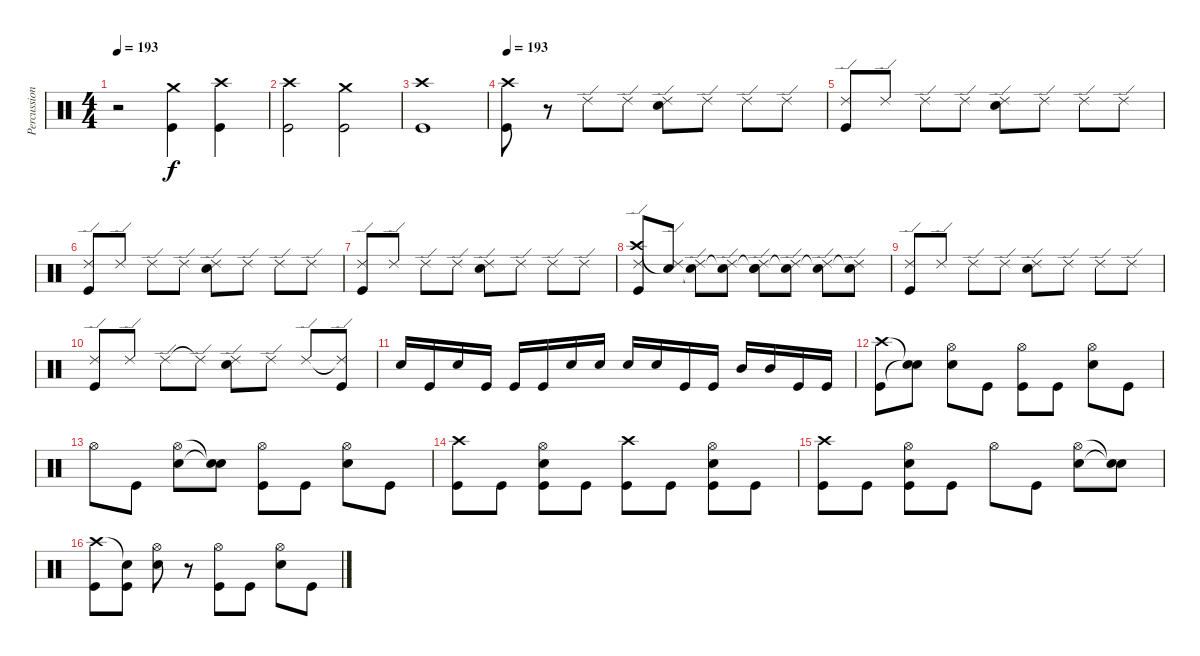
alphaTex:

\track ("Percussion" "Percussion") {instrument percussion}
\staff {score}
\articulation defaults
\ts (4 4)
\tempo 193
\clef neutral
\ks c
r.2{dy f} ("Crash medium (hit)" "Kick (hit)").4 ("Crash high (hit)" "Kick (hit)").4 |
("Crash high (hit)" "Kick (hit)").2 ("Crash medium (hit)" "Kick (hit)").2 |
("Crash high (hit)" "Kick (hit)").1 |
\tempo 193
("Crash high (hit)" "Kick (hit)").8 r.8 "Ride (edge) 2".8 "Ride (edge) 2".8 ("Ride (edge) 2" "Snare (hit) 2").8 "Ride (edge) 2".8 "Ride (edge) 2".8 "Ride (edge) 2".8 |
("Ride (edge) 2" "Kick (hit)").8 "Ride (edge) 2".8 "Ride (edge) 2".8 "Ride (edge) 2".8 ("Ride (edge) 2" "Snare (hit) 2").8 "Ride (edge) 2".8 "Ride (edge) 2".8 "Ride (edge) 2".8 |
("Ride (edge) 2" "Kick (hit)").8 "Ride (edge) 2".8 "Ride (edge) 2".8 "Ride (edge) 2".8 ("Ride (edge) 2" "Snare (hit) 2").8 "Ride (edge) 2".8 "Ride (edge) 2".8 "Ride (edge) 2".8 |
("Ride (edge) 2" "Kick (hit)").8 "Ride (edge) 2".8 "Ride (edge) 2".8 "Ride (edge) 2".8 ("Ride (edge) 2" "Snare (hit) 2").8 "Ride (edge) 2".8 "Ride (edge) 2".8 "Ride (edge) 2".8 |
("Crash high (hit)" "Ride (edge) 2" "Kick (hit)").8 ("Snare (hit)"{t} "Ride (edge) 2").8 ("Snare (hit)"{t} "Ride (edge) 2").8 ("Snare (hit)"{t} "Ride (edge) 2").8 ("Snare (hit)"{t} "Ride (edge) 2" "Snare (hit) 2").8 ("Snare (hit)"{t} "Ride (edge) 2").8 ("Snare (hit)"{t} "Ride (edge) 2").8 ("Snare (hit)"{t} "Ride (edge) 2").8 |
("Ride (edge) 2" "Kick (hit)").8 "Ride (edge) 2".8 "Ride (edge) 2".8 "Ride (edge) 2".8 ("Ride (edge) 2" "Snare (hit) 2").8 "Ride (edge) 2".8 "Ride (edge) 2".8 "Ride (edge) 2".8 |
("Ride (edge) 2" "Kick (hit)").8 "Ride (edge) 2".8 "Ride (edge) 2".8 "Ride (edge) 2"{t}.8 ("Ride (edge) 2" "Snare (hit) 2").8 "Ride (edge) 2".8 "Ride (edge) 2".8 ("Ride (edge) 2"{t} "Kick (hit)").8 |
"Snare (hit) 2".16 "Kick (hit)".16 "Snare (hit) 2".16 "Kick (hit)".16 "Kick (hit)".16 "Kick (hit)".16 "Snare (hit) 2".16 "Snare (hit) 2".16 "Snare (hit) 2".16 "Snare (hit) 2".16 "Kick (hit)".16 "Kick (hit)".16 "Mid Tom (hit)".16 "Mid Tom (hit)".16 "Kick (hit)".16 "Kick (hit)".16 |
("Crash high (hit)" "Kick (hit)").8 ("Snare (hit)"{t} "Snare (hit)"{t}).8 ("Hi-Hat (open)" "Snare (hit) 2").8 "Kick (hit)".8 ("Hi-Hat (open)" "Kick (hit)").8 "Kick (hit)".8 ("Hi-Hat (open)" "Snare (hit) 2").8 "Kick (hit)".8 |
"Hi-Hat (open)".8 "Kick (hit)".8 ("Hi-Hat (open)" "Snare (hit) 2").8 ("Snare (hit)"{t} "Snare (hit)"{t}).8 ("Hi-Hat (open)" "Kick (hit)").8 "Kick (hit)".8 ("Hi-Hat (open)" "Snare (hit) 2").8 "Kick (hit)".8 |
("Crash high (hit)" "Kick (hit)").8 "Kick (hit)".8 ("Hi-Hat (open)" "Snare (hit) 2" "Kick (hit)").8 "Kick (hit)".8 ("Crash high (hit)" "Kick (hit)").8 "Kick (hit)".8 ("Hi-Hat (open)" "Snare (hit) 2" "Kick (hit)").8 "Kick (hit)".8 |
("Crash high (hit)" "Kick (hit)").8 "Kick (hit)".8 ("Hi-Hat (open)" "Snare (hit) 2" "Kick (hit)").8 "Kick (hit)".8 "Hi-Hat (open)".8 "Kick (hit)".8 ("Hi-Hat (open)" "Snare (hit) 2").8 ("Snare (hit)"{t} "Snare (hit)"{t}).8 |
("Crash high (hit)" "Kick (hit)").8 ("Snare (hit)"{t} "Kick (hit)").8 ("Hi-Hat (open)" "Snare (hit) 2").8 r.8 ("Hi-Hat (open)" "Kick (hit)").8 "Kick (hit)".8 ("Hi-Hat (open)" "Snare (hit) 2").8 "Kick (hit)".8
